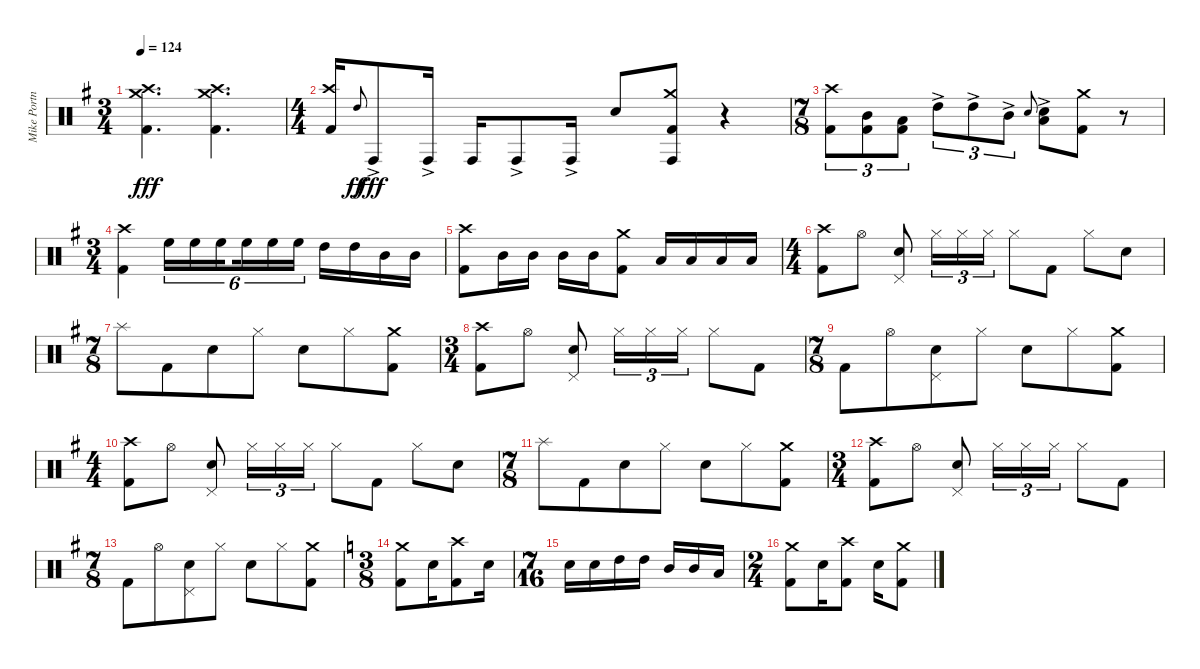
\track ("Mike Portnoy - Drums" "Mike Portn") {instrument percussion}
\staff {score}
\articulation defaults
\ts (3 4)
\tempo 124
\clef neutral
\ks g
("Crash medium (hit)" "Crash high (hit)" "Kick (hit) 2").4{d dy fff} ("Crash medium (hit)" "Crash high (hit)" "Kick (hit) 2").4{d} |
\ts (4 4)
("Crash high (hit)" "Kick (hit) 2").16 "High Tom (hit)".8{gr onbeat dy ff} "Conga high (hit)"{ac}.8{dy fff} "Conga high (hit)"{ac}.16 "Conga high (hit)".16 "Conga high (hit)"{ac}.8 "Conga high (hit)"{ac}.16 "Electric Snare (hit)".8 ("Crash medium (hit)" "Conga high (hit)" "Kick (hit) 2").8 r.4 |
\ts (7 8)
("Crash high (hit)" "Kick (hit) 2").8{tu (3 2)} ("Mid Tom (hit)" "Kick (hit) 2").8{tu (3 2)} ("Low Tom (hit)" "Kick (hit) 2").8{tu (3 2)} "High Tom (hit)"{ac}.8{tu (3 2)} "High Tom (hit)"{ac}.8{tu (3 2)} "Mid Tom (hit)"{ac}.8{tu (3 2)} "Electric Snare (hit)".8{gr onbeat} ("Low Tom (hit)" "Electric Snare (hit)"{ac}).8 ("Crash medium (hit)" "Kick (hit) 2").8 r.8 |
\ts (3 4)
("Crash high (hit)" "Kick (hit) 2").4 "High Floor Tom (hit)".16{tu (6 4)} "High Floor Tom (hit)".16{tu (6 4)} "High Floor Tom (hit)".16{tu (6 4) beam splitsecondary} "High Floor Tom (hit)".16{tu (6 4)} "High Floor Tom (hit)".16{tu (6 4)} "High Floor Tom (hit)".16{tu (6 4)} "High Tom (hit)".16 "High Tom (hit)".16 "Mid Tom (hit)".16 "Mid Tom (hit)".16 |
("Crash high (hit)" "Kick (hit) 2").8 "Mid Tom (hit)".16 "Mid Tom (hit)".16 "Mid Tom (hit)".16 "Mid Tom (hit)".16 ("Crash medium (hit)" "Kick (hit) 2").8 "Low Tom (hit)".16 "Low Tom (hit)".16 "Low Tom (hit)".16 "Low Tom (hit)".16 |
\ts (4 4)
("Crash high (hit)" "Kick (hit) 2").8 "Hi-Hat (open)".8 ("Pedal Hi-Hat (hit)" "Electric Snare (hit)").8 "Hi-Hat (closed)".16{tu (3 2)} "Hi-Hat (closed)".16{tu (3 2)} "Hi-Hat (closed)".16{tu (3 2)} "Hi-Hat (closed)".8 "Kick (hit) 2".8 "Hi-Hat (closed)".8 "Electric Snare (hit)".8 |
\ts (7 8)
"Splash (hit)".8 "Kick (hit) 2".8 "Electric Snare (hit)".8 "Hi-Hat (closed)".8 "Electric Snare (hit)".8 "Hi-Hat (closed)".8 ("Crash medium (hit)" "Kick (hit) 2").8 |
\ts (3 4)
("Crash high (hit)" "Kick (hit) 2").8 "Hi-Hat (open)".8 ("Pedal Hi-Hat (hit)" "Electric Snare (hit)").8 "Hi-Hat (closed)".16{tu (3 2)} "Hi-Hat (closed)".16{tu (3 2)} "Hi-Hat (closed)".16{tu (3 2)} "Hi-Hat (closed)".8 "Kick (hit) 2".8 |
\ts (7 8)
"Kick (hit) 2".8 "Hi-Hat (open)".8 ("Pedal Hi-Hat (hit)" "Electric Snare (hit)").8 "Hi-Hat (closed)".8 "Electric Snare (hit)".8 "Hi-Hat (closed)".8 ("Crash medium (hit)" "Kick (hit) 2").8 |
\ts (4 4)
("Crash high (hit)" "Kick (hit) 2").8 "Hi-Hat (open)".8 ("Pedal Hi-Hat (hit)" "Electric Snare (hit)").8 "Hi-Hat (closed)".16{tu (3 2)} "Hi-Hat (closed)".16{tu (3 2)} "Hi-Hat (closed)".16{tu (3 2)} "Hi-Hat (closed)".8 "Kick (hit) 2".8 "Hi-Hat (closed)".8 "Electric Snare (hit)".8 |
\ts (7 8)
"Splash (hit)".8 "Kick (hit) 2".8 "Electric Snare (hit)".8 "Hi-Hat (closed)".8 "Electric Snare (hit)".8 "Hi-Hat (closed)".8 ("Crash medium (hit)" "Kick (hit) 2").8 |
\ts (3 4)
("Crash high (hit)" "Kick (hit) 2").8 "Hi-Hat (open)".8 ("Pedal Hi-Hat (hit)" "Electric Snare (hit)").8 "Hi-Hat (closed)".16{tu (3 2)} "Hi-Hat (closed)".16{tu (3 2)} "Hi-Hat (closed)".16{tu (3 2)} "Hi-Hat (closed)".8 "Kick (hit) 2".8 |
\ts (7 8)
"Kick (hit) 2".8 "Hi-Hat (open)".8 ("Pedal Hi-Hat (hit)" "Electric Snare (hit)").8 "Hi-Hat (closed)".8 "Electric Snare (hit)".8 "Hi-Hat (closed)".8 ("Crash medium (hit)" "Kick (hit) 2").8 |
\ts (3 8)
\ks c
("Crash medium (hit)" "Kick (hit) 2").8 "Snare (hit) 2".16 ("Crash high (hit)" "Kick (hit) 2").8 "Snare (hit) 2".16 |
\ts (7 16)
"Snare (hit) 2".16 "Snare (hit) 2".16 "High Tom (hit)".16 "High Tom (hit)".16 "Mid Tom (hit)".16 "Mid Tom (hit)".16 "Low Tom (hit)".16 |
\ts (2 4)
("Crash medium (hit)" "Kick (hit) 2").8 "Snare (hit) 2".16 ("Crash high (hit)" "Kick (hit) 2").8 "Snare (hit) 2".16 ("Crash medium (hit)" "Kick (hit) 2").8
